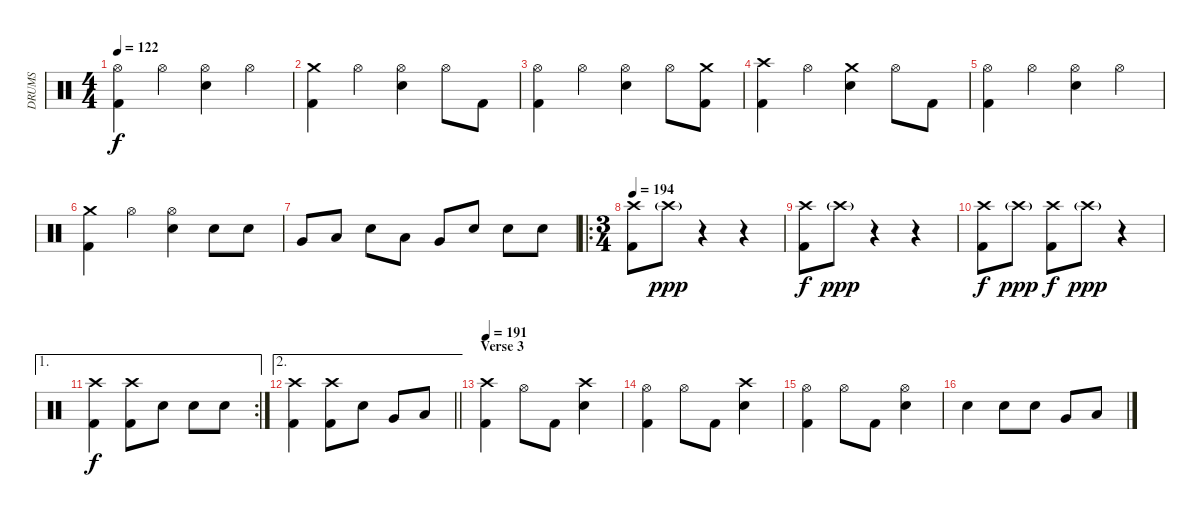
\track ("DRUMS" "DRUMS") {instrument percussion}
\staff {score}
\articulation defaults
\ts (4 4)
\tempo 122
\clef neutral
\ks c
("Hi-Hat (open)" "Kick (hit) 2").4{dy f} "Hi-Hat (open)".4 ("Hi-Hat (open)" "Snare (hit) 2").4 "Hi-Hat (open)".4 |
("Crash medium (hit)" "Kick (hit) 2").4 "Hi-Hat (open)".4 ("Hi-Hat (open)" "Snare (hit) 2").4 "Hi-Hat (open)".8 "Kick (hit) 2".8 |
("Hi-Hat (open)" "Kick (hit) 2").4 "Hi-Hat (open)".4 ("Hi-Hat (open)" "Snare (hit) 2").4 "Hi-Hat (open)".8 ("Crash medium (hit)" "Kick (hit) 2").8 |
("Crash high (hit)" "Kick (hit) 2").4 "Hi-Hat (open)".4 ("Crash medium (hit)" "Snare (hit) 2").4 "Hi-Hat (open)".8 "Kick (hit) 2".8 |
("Hi-Hat (open)" "Kick (hit) 2").4 "Hi-Hat (open)".4 ("Hi-Hat (open)" "Snare (hit) 2").4 "Hi-Hat (open)".4 |
("Crash medium (hit)" "Kick (hit) 2").4 "Hi-Hat (open)".4 ("Hi-Hat (open)" "Snare (hit) 2").4 "Snare (hit) 2".8 "Snare (hit) 2".8 |
"Very Low Tom (hit)".8 "Low Tom (hit)".8 "Snare (hit) 2".8 "Low Tom (hit)".8 "Very Low Tom (hit)".8 "Snare (hit) 2".8 "Snare (hit) 2".8 "Snare (hit) 2".8 |
\ro
\ts (3 4)
\tempo 194
("Crash high (hit)" "Kick (hit) 2").8 "Crash high (hit)"{g}.8{dy ppp} r.4 r.4 |
("Crash high (hit)" "Kick (hit) 2").8{dy f} "Crash high (hit)"{g}.8{dy ppp} r.4 r.4 |
("Crash high (hit)" "Kick (hit) 2").8{dy f} "Crash high (hit)"{g}.8{dy ppp} ("Crash high (hit)" "Kick (hit) 2").8{dy f} "Crash high (hit)"{g}.8{dy ppp} r.4 |
\ae 1
\rc 2
("Crash high (hit)" "Kick (hit) 2").4{dy f} ("Crash high (hit)" "Kick (hit) 2").8 "Snare (hit) 2".8 "Snare (hit) 2".8 "Snare (hit) 2".8 |
\ae 2
\barLineRight lightlight
("Crash high (hit)" "Kick (hit) 2").4 ("Crash high (hit)" "Kick (hit) 2").8 "Snare (hit) 2".8 "Very Low Tom (hit)".8 "Low Tom (hit)".8 |
\section ("" "Verse 3")
\tempo 191
("Crash high (hit)" "Kick (hit) 2").4 "Hi-Hat (open)".8 "Kick (hit) 2".8 ("Crash high (hit)" "Snare (hit) 2").4 |
("Hi-Hat (open)" "Kick (hit) 2").4 "Hi-Hat (open)".8 "Kick (hit) 2".8 ("Crash high (hit)" "Snare (hit) 2").4 |
("Hi-Hat (open)" "Kick (hit) 2").4 "Hi-Hat (open)".8 "Kick (hit) 2".8 ("Hi-Hat (open)" "Snare (hit) 2").4 |
"Snare (hit) 2".4 "Snare (hit) 2".8 "Snare (hit) 2".8 "Very Low Tom (hit)".8 "Low Tom (hit)".8
